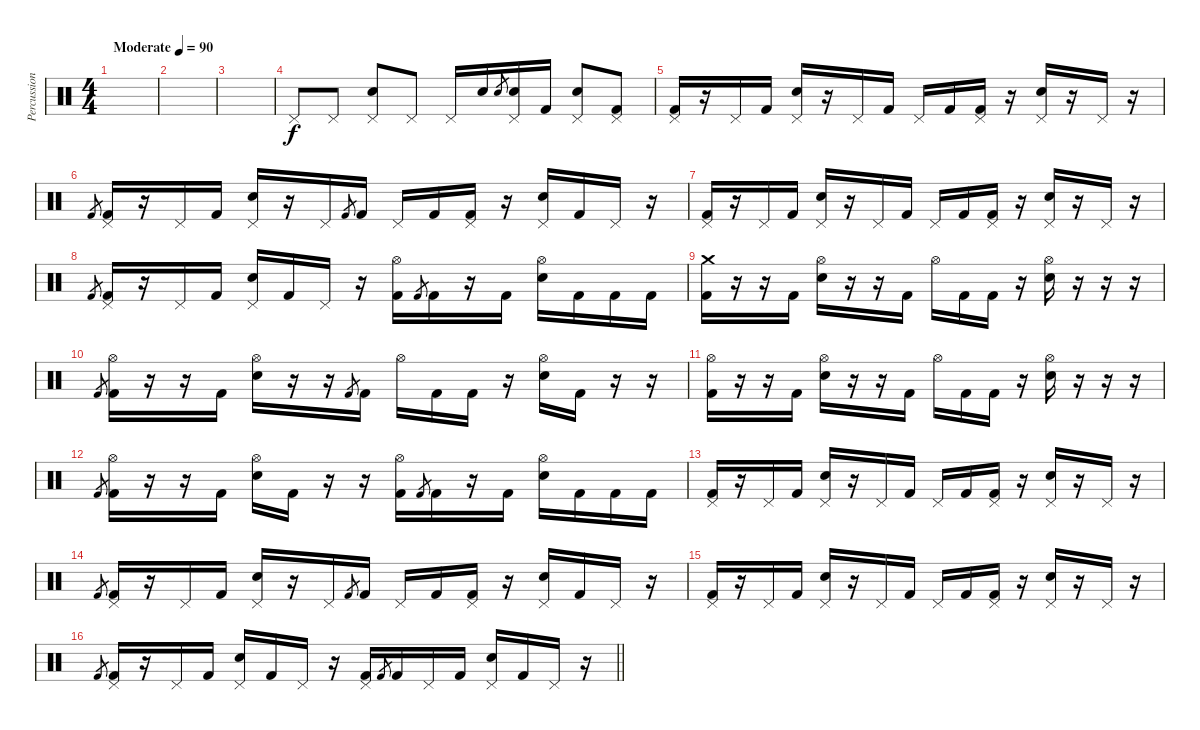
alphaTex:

\track ("Percussion" "Percussion") {instrument percussion}
\staff {score}
\articulation defaults
\ts (4 4)
\tempo (90 "Moderate")
\clef neutral
\ks c
|
|
|
"Pedal Hi-Hat (hit)".8 "Pedal Hi-Hat (hit)".8 ("Pedal Hi-Hat (hit)" "Snare (hit) 2").8 "Pedal Hi-Hat (hit)".8 "Pedal Hi-Hat (hit)".16 "Electric Snare (hit)".16 "Electric Snare (hit)".8{gr} ("Pedal Hi-Hat (hit)" "Electric Snare (hit)").16 "Kick (hit) 2".16 ("Pedal Hi-Hat (hit)" "Snare (hit) 2").8 ("Pedal Hi-Hat (hit)" "Kick (hit) 2").8 |
("Pedal Hi-Hat (hit)" "Kick (hit) 2").16 r.16 "Pedal Hi-Hat (hit)".16 "Kick (hit) 2".16 ("Pedal Hi-Hat (hit)" "Snare (hit) 2").16 r.16 "Pedal Hi-Hat (hit)".16 "Kick (hit) 2".16 "Pedal Hi-Hat (hit)".16 "Kick (hit) 2".16 ("Pedal Hi-Hat (hit)" "Kick (hit) 2").16 r.16 ("Pedal Hi-Hat (hit)" "Snare (hit) 2").16 r.16 "Pedal Hi-Hat (hit)".16 r.16 |
"Kick (hit) 2".8{gr} ("Pedal Hi-Hat (hit)" "Kick (hit) 2").16 r.16 "Pedal Hi-Hat (hit)".16 "Kick (hit) 2".16 ("Pedal Hi-Hat (hit)" "Snare (hit) 2").16 r.16 "Pedal Hi-Hat (hit)".16 "Kick (hit) 2".8{gr} "Kick (hit) 2".16 "Pedal Hi-Hat (hit)".16 "Kick (hit) 2".16 ("Pedal Hi-Hat (hit)" "Kick (hit) 2").16 r.16 ("Pedal Hi-Hat (hit)" "Snare (hit) 2").16 "Kick (hit) 2".16 "Pedal Hi-Hat (hit)".16 r.16 |
("Pedal Hi-Hat (hit)" "Kick (hit) 2").16 r.16 "Pedal Hi-Hat (hit)".16 "Kick (hit) 2".16 ("Pedal Hi-Hat (hit)" "Snare (hit) 2").16 r.16 "Pedal Hi-Hat (hit)".16 "Kick (hit) 2".16 "Pedal Hi-Hat (hit)".16 "Kick (hit) 2".16 ("Pedal Hi-Hat (hit)" "Kick (hit) 2").16 r.16 ("Pedal Hi-Hat (hit)" "Snare (hit) 2").16 r.16 "Pedal Hi-Hat (hit)".16 r.16 |
"Kick (hit) 2".8{gr} ("Pedal Hi-Hat (hit)" "Kick (hit) 2").16 r.16 "Pedal Hi-Hat (hit)".16 "Kick (hit) 2".16 ("Pedal Hi-Hat (hit)" "Snare (hit) 2").16 "Kick (hit) 2".16 "Pedal Hi-Hat (hit)".16 r.16 ("Hi-Hat (open)" "Kick (hit) 2").16 "Kick (hit) 2".8{gr} "Kick (hit) 2".16 r.16 "Kick (hit) 2".16 ("Hi-Hat (open)" "Snare (hit) 2").16 "Kick (hit) 2".16 "Kick (hit) 2".16 "Kick (hit) 2".16 |
("Crash medium (hit)" "Kick (hit) 2").16 r.16 r.16 "Kick (hit) 2".16 ("Hi-Hat (open)" "Snare (hit) 2").16 r.16 r.16 "Kick (hit) 2".16 "Hi-Hat (open)".16 "Kick (hit) 2".16 "Kick (hit) 2".16 r.16 ("Hi-Hat (open)" "Snare (hit) 2").16 r.16 r.16 r.16 |
"Kick (hit) 2".8{gr} ("Hi-Hat (open)" "Kick (hit) 2").16 r.16 r.16 "Kick (hit) 2".16 ("Hi-Hat (open)" "Snare (hit) 2").16 r.16 r.16 "Kick (hit) 2".8{gr} "Kick (hit) 2".16 "Hi-Hat (open)".16 "Kick (hit) 2".16 "Kick (hit) 2".16 r.16 ("Hi-Hat (open)" "Snare (hit) 2").16 "Kick (hit) 2".16 r.16 r.16 |
("Hi-Hat (open)" "Kick (hit) 2").16 r.16 r.16 "Kick (hit) 2".16 ("Hi-Hat (open)" "Snare (hit) 2").16 r.16 r.16 "Kick (hit) 2".16 "Hi-Hat (open)".16 "Kick (hit) 2".16 "Kick (hit) 2".16 r.16 ("Hi-Hat (open)" "Snare (hit) 2").16 r.16 r.16 r.16 |
"Kick (hit) 2".8{gr} ("Hi-Hat (open)" "Kick (hit) 2").16 r.16 r.16 "Kick (hit) 2".16 ("Hi-Hat (open)" "Snare (hit) 2").16 "Kick (hit) 2".16 r.16 r.16 ("Hi-Hat (open)" "Kick (hit) 2").16 "Kick (hit) 2".8{gr} "Kick (hit) 2".16 r.16 "Kick (hit) 2".16 ("Hi-Hat (open)" "Snare (hit) 2").16 "Kick (hit) 2".16 "Kick (hit) 2".16 "Kick (hit) 2".16 |
("Pedal Hi-Hat (hit)" "Kick (hit) 2").16 r.16 "Pedal Hi-Hat (hit)".16 "Kick (hit) 2".16 ("Pedal Hi-Hat (hit)" "Snare (hit) 2").16 r.16 "Pedal Hi-Hat (hit)".16 "Kick (hit) 2".16 "Pedal Hi-Hat (hit)".16 "Kick (hit) 2".16 ("Pedal Hi-Hat (hit)" "Kick (hit) 2").16 r.16 ("Pedal Hi-Hat (hit)" "Snare (hit) 2").16 r.16 "Pedal Hi-Hat (hit)".16 r.16 |
"Kick (hit) 2".8{gr} ("Pedal Hi-Hat (hit)" "Kick (hit) 2").16 r.16 "Pedal Hi-Hat (hit)".16 "Kick (hit) 2".16 ("Pedal Hi-Hat (hit)" "Snare (hit) 2").16 r.16 "Pedal Hi-Hat (hit)".16 "Kick (hit) 2".8{gr} "Kick (hit) 2".16 "Pedal Hi-Hat (hit)".16 "Kick (hit) 2".16 ("Pedal Hi-Hat (hit)" "Kick (hit) 2").16 r.16 ("Pedal Hi-Hat (hit)" "Snare (hit) 2").16 "Kick (hit) 2".16 "Pedal Hi-Hat (hit)".16 r.16 |
("Pedal Hi-Hat (hit)" "Kick (hit) 2").16 r.16 "Pedal Hi-Hat (hit)".16 "Kick (hit) 2".16 ("Pedal Hi-Hat (hit)" "Snare (hit) 2").16 r.16 "Pedal Hi-Hat (hit)".16 "Kick (hit) 2".16 "Pedal Hi-Hat (hit)".16 "Kick (hit) 2".16 ("Pedal Hi-Hat (hit)" "Kick (hit) 2").16 r.16 ("Pedal Hi-Hat (hit)" "Snare (hit) 2").16 r.16 "Pedal Hi-Hat (hit)".16 r.16 |
\barLineRight lightlight "Kick (hit) 2".8{gr}
("Pedal Hi-Hat (hit)" "Kick (hit) 2").16 r.16 "Pedal Hi-Hat (hit)".16 "Kick (hit) 2".16 ("Pedal Hi-Hat (hit)" "Snare (hit) 2").16 "Kick (hit) 2".16 "Pedal Hi-Hat (hit)".16 r.16 ("Pedal Hi-Hat (hit)" "Kick (hit) 2").16 "Kick (hit) 2".8{gr} "Kick (hit) 2".16 "Pedal Hi-Hat (hit)".16 "Kick (hit) 2".16 ("Pedal Hi-Hat (hit)" "Snare (hit) 2").16 "Kick (hit) 2".16 "Pedal Hi-Hat (hit)".16 r.16
